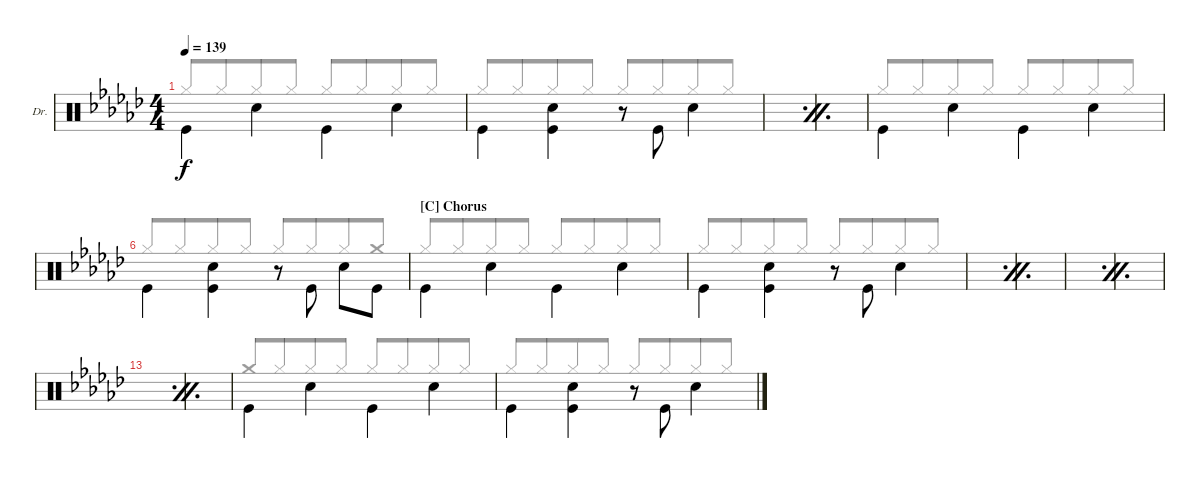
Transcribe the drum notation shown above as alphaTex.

\bracketExtendMode groupsimilarinstruments
\firstSystemTrackNameOrientation horizontal
\otherSystemsTrackNameOrientation horizontal
\defaultBarNumberDisplay FirstOfSystem
\track ("Drums" "Dr.") {instrument percussion}
\staff {score}
\articulation defaults
\voice
\ts (4 4)
\tempo 139
\clef neutral
\ks gb "Kick (hit)".4{dy f beam invert} "Snare (hit) 2".4{beam invert} "Kick (hit)".4{beam invert} "Snare (hit) 2".4{beam invert}
|
"Kick (hit)".4{beam invert} ("Snare (hit) 2" "Kick (hit)").4{beam invert} r.8 "Kick (hit)".8{beam invert} "Snare (hit) 2".4{beam invert} |
\simile firstofdouble
|
\simile secondofdouble
|
\simile none "Kick (hit)".4{beam invert} "Snare (hit) 2".4{beam invert} "Kick (hit)".4{beam invert} "Snare (hit) 2".4{beam invert}
|
"Kick (hit)".4{beam invert} ("Snare (hit) 2" "Kick (hit)").4{beam invert} r.8 "Kick (hit)".8{beam invert} "Snare (hit) 2".8{beam invert} "Kick (hit)".8 |
\section ("C" "Chorus")
"Kick (hit)".4{beam invert} "Snare (hit) 2".4{beam invert} "Kick (hit)".4{beam invert} "Snare (hit) 2".4{beam invert} |
"Kick (hit)".4{beam invert} ("Snare (hit) 2" "Kick (hit)").4{beam invert} r.8 "Kick (hit)".8{beam invert} "Snare (hit) 2".4{beam invert} |
\simile firstofdouble
|
\simile secondofdouble
|
\simile firstofdouble
|
\simile secondofdouble
|
\simile firstofdouble
|
\simile secondofdouble
|
\simile none "Kick (hit)".4{beam invert} "Snare (hit) 2".4{beam invert} "Kick (hit)".4{beam invert} "Snare (hit) 2".4{beam invert}
|
"Kick (hit)".4{beam invert} ("Snare (hit) 2" "Kick (hit)").4{beam invert} r.8 "Kick (hit)".8{beam invert} "Snare (hit) 2".4{beam invert}
\voice
\clef neutral
\ottava regular
\simile none
\ks gb "Hi-Hat (closed)".8{dy f beam invert} "Hi-Hat (closed)".8{beam merge} "Hi-Hat (closed)".8 "Hi-Hat (closed)".8 "Hi-Hat (closed)".8{beam invert} "Hi-Hat (closed)".8{beam merge} "Hi-Hat (closed)".8 "Hi-Hat (closed)".8
|
"Hi-Hat (closed)".8{beam invert beam merge} "Hi-Hat (closed)".8{beam merge} "Hi-Hat (closed)".8 "Hi-Hat (closed)".8 "Hi-Hat (closed)".8{beam invert} "Hi-Hat (closed)".8{beam merge} "Hi-Hat (closed)".8{beam merge} "Hi-Hat (closed)".8 |
\simile firstofdouble
|
\simile secondofdouble
|
\simile none "Hi-Hat (closed)".8{beam invert} "Hi-Hat (closed)".8{beam merge} "Hi-Hat (closed)".8 "Hi-Hat (closed)".8 "Hi-Hat (closed)".8{beam invert} "Hi-Hat (closed)".8{beam merge} "Hi-Hat (closed)".8 "Hi-Hat (closed)".8
|
"Hi-Hat (closed)".8{beam invert beam merge} "Hi-Hat (closed)".8{beam merge} "Hi-Hat (closed)".8 "Hi-Hat (closed)".8 "Hi-Hat (closed)".8{beam invert} "Hi-Hat (closed)".8{beam merge} "Hi-Hat (closed)".8{beam merge} "Crash medium (hit)".8 |
"Hi-Hat (closed)".8{beam invert} "Hi-Hat (closed)".8{beam merge} "Hi-Hat (closed)".8 "Hi-Hat (closed)".8 "Hi-Hat (closed)".8{beam invert} "Hi-Hat (closed)".8{beam merge} "Hi-Hat (closed)".8 "Hi-Hat (closed)".8 |
"Hi-Hat (closed)".8{beam invert} "Hi-Hat (closed)".8{beam merge} "Hi-Hat (closed)".8 "Hi-Hat (closed)".8 "Hi-Hat (closed)".8{beam invert beam merge} "Hi-Hat (closed)".8{beam merge} "Hi-Hat (closed)".8{beam merge} "Hi-Hat (closed)".8 |
\simile firstofdouble
|
\simile secondofdouble
|
\simile firstofdouble
|
\simile secondofdouble
|
\simile firstofdouble
|
\simile secondofdouble
|
\simile none "Crash medium (hit)".8{beam invert} "Hi-Hat (closed)".8{beam merge} "Hi-Hat (closed)".8 "Hi-Hat (closed)".8 "Hi-Hat (closed)".8{beam invert} "Hi-Hat (closed)".8{beam merge} "Hi-Hat (closed)".8 "Hi-Hat (closed)".8
|
"Hi-Hat (closed)".8{beam invert} "Hi-Hat (closed)".8{beam merge} "Hi-Hat (closed)".8 "Hi-Hat (closed)".8 "Hi-Hat (closed)".8{beam invert beam merge} "Hi-Hat (closed)".8{beam merge} "Hi-Hat (closed)".8{beam merge} "Hi-Hat (closed)".8
